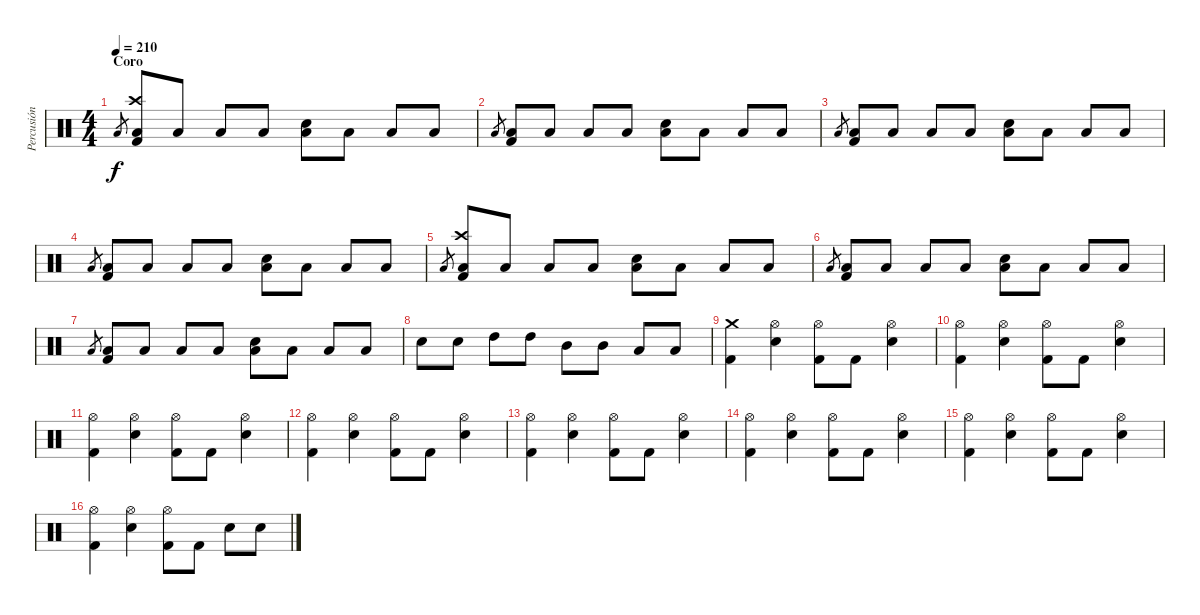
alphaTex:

\track ("Percusión" "Percusión") {instrument percussion}
\staff {score}
\articulation defaults
\ts (4 4)
\section ("" "Coro")
\tempo 210
\clef neutral
\ks c "Low Floor Tom (hit)".8{gr dy f}
("Crash high (hit)" "Low Floor Tom (hit)" "Kick (hit) 2").8 "Low Floor Tom (hit)".8 "Low Floor Tom (hit)".8 "Low Floor Tom (hit)".8 ("Low Floor Tom (hit)" "Snare (hit) 2").8 "Low Floor Tom (hit)".8 "Low Floor Tom (hit)".8 "Low Floor Tom (hit)".8 |
"Low Floor Tom (hit)".8{gr} ("Low Floor Tom (hit)" "Kick (hit) 2").8 "Low Floor Tom (hit)".8 "Low Floor Tom (hit)".8 "Low Floor Tom (hit)".8 ("Low Floor Tom (hit)" "Snare (hit) 2").8 "Low Floor Tom (hit)".8 "Low Floor Tom (hit)".8 "Low Floor Tom (hit)".8 |
"Low Floor Tom (hit)".8{gr} ("Low Floor Tom (hit)" "Kick (hit) 2").8 "Low Floor Tom (hit)".8 "Low Floor Tom (hit)".8 "Low Floor Tom (hit)".8 ("Low Floor Tom (hit)" "Snare (hit) 2").8 "Low Floor Tom (hit)".8 "Low Floor Tom (hit)".8 "Low Floor Tom (hit)".8 |
"Low Floor Tom (hit)".8{gr} ("Low Floor Tom (hit)" "Kick (hit) 2").8 "Low Floor Tom (hit)".8 "Low Floor Tom (hit)".8 "Low Floor Tom (hit)".8 ("Low Floor Tom (hit)" "Snare (hit) 2").8 "Low Floor Tom (hit)".8 "Low Floor Tom (hit)".8 "Low Floor Tom (hit)".8 |
"Low Floor Tom (hit)".8{gr} ("Crash high (hit)" "Low Floor Tom (hit)" "Kick (hit) 2").8 "Low Floor Tom (hit)".8 "Low Floor Tom (hit)".8 "Low Floor Tom (hit)".8 ("Low Floor Tom (hit)" "Snare (hit) 2").8 "Low Floor Tom (hit)".8 "Low Floor Tom (hit)".8 "Low Floor Tom (hit)".8 |
"Low Floor Tom (hit)".8{gr} ("Low Floor Tom (hit)" "Kick (hit) 2").8 "Low Floor Tom (hit)".8 "Low Floor Tom (hit)".8 "Low Floor Tom (hit)".8 ("Low Floor Tom (hit)" "Snare (hit) 2").8 "Low Floor Tom (hit)".8 "Low Floor Tom (hit)".8 "Low Floor Tom (hit)".8 |
"Low Floor Tom (hit)".8{gr} ("Low Floor Tom (hit)" "Kick (hit) 2").8 "Low Floor Tom (hit)".8 "Low Floor Tom (hit)".8 "Low Floor Tom (hit)".8 ("Low Floor Tom (hit)" "Snare (hit) 2").8 "Low Floor Tom (hit)".8 "Low Floor Tom (hit)".8 "Low Floor Tom (hit)".8 |
"Snare (hit) 2".8 "Snare (hit) 2".8 "High Tom (hit)".8 "High Tom (hit)".8 "Mid Tom (hit)".8 "Mid Tom (hit)".8 "Low Tom (hit)".8 "Low Tom (hit)".8 |
("Crash medium (hit)" "Kick (hit) 2").4 ("Snare (hit) 2" "Hi-Hat (open)").4 ("Hi-Hat (open)" "Kick (hit) 2").8 "Kick (hit) 2".8 ("Snare (hit) 2" "Hi-Hat (open)").4 |
("Hi-Hat (open)" "Kick (hit) 2").4 ("Snare (hit) 2" "Hi-Hat (open)").4 ("Hi-Hat (open)" "Kick (hit) 2").8 "Kick (hit) 2".8 ("Snare (hit) 2" "Hi-Hat (open)").4 |
("Hi-Hat (open)" "Kick (hit) 2").4 ("Snare (hit) 2" "Hi-Hat (open)").4 ("Hi-Hat (open)" "Kick (hit) 2").8 "Kick (hit) 2".8 ("Snare (hit) 2" "Hi-Hat (open)").4 |
("Hi-Hat (open)" "Kick (hit) 2").4 ("Snare (hit) 2" "Hi-Hat (open)").4 ("Hi-Hat (open)" "Kick (hit) 2").8 "Kick (hit) 2".8 ("Snare (hit) 2" "Hi-Hat (open)").4 |
("Hi-Hat (open)" "Kick (hit) 2").4 ("Snare (hit) 2" "Hi-Hat (open)").4 ("Hi-Hat (open)" "Kick (hit) 2").8 "Kick (hit) 2".8 ("Snare (hit) 2" "Hi-Hat (open)").4 |
("Hi-Hat (open)" "Kick (hit) 2").4 ("Snare (hit) 2" "Hi-Hat (open)").4 ("Hi-Hat (open)" "Kick (hit) 2").8 "Kick (hit) 2".8 ("Snare (hit) 2" "Hi-Hat (open)").4 |
("Hi-Hat (open)" "Kick (hit) 2").4 ("Snare (hit) 2" "Hi-Hat (open)").4 ("Hi-Hat (open)" "Kick (hit) 2").8 "Kick (hit) 2".8 ("Snare (hit) 2" "Hi-Hat (open)").4 |
("Hi-Hat (open)" "Kick (hit) 2").4 ("Snare (hit) 2" "Hi-Hat (open)").4 ("Hi-Hat (open)" "Kick (hit) 2").8 "Kick (hit) 2".8 "Snare (hit) 2".8 "Snare (hit) 2".8
